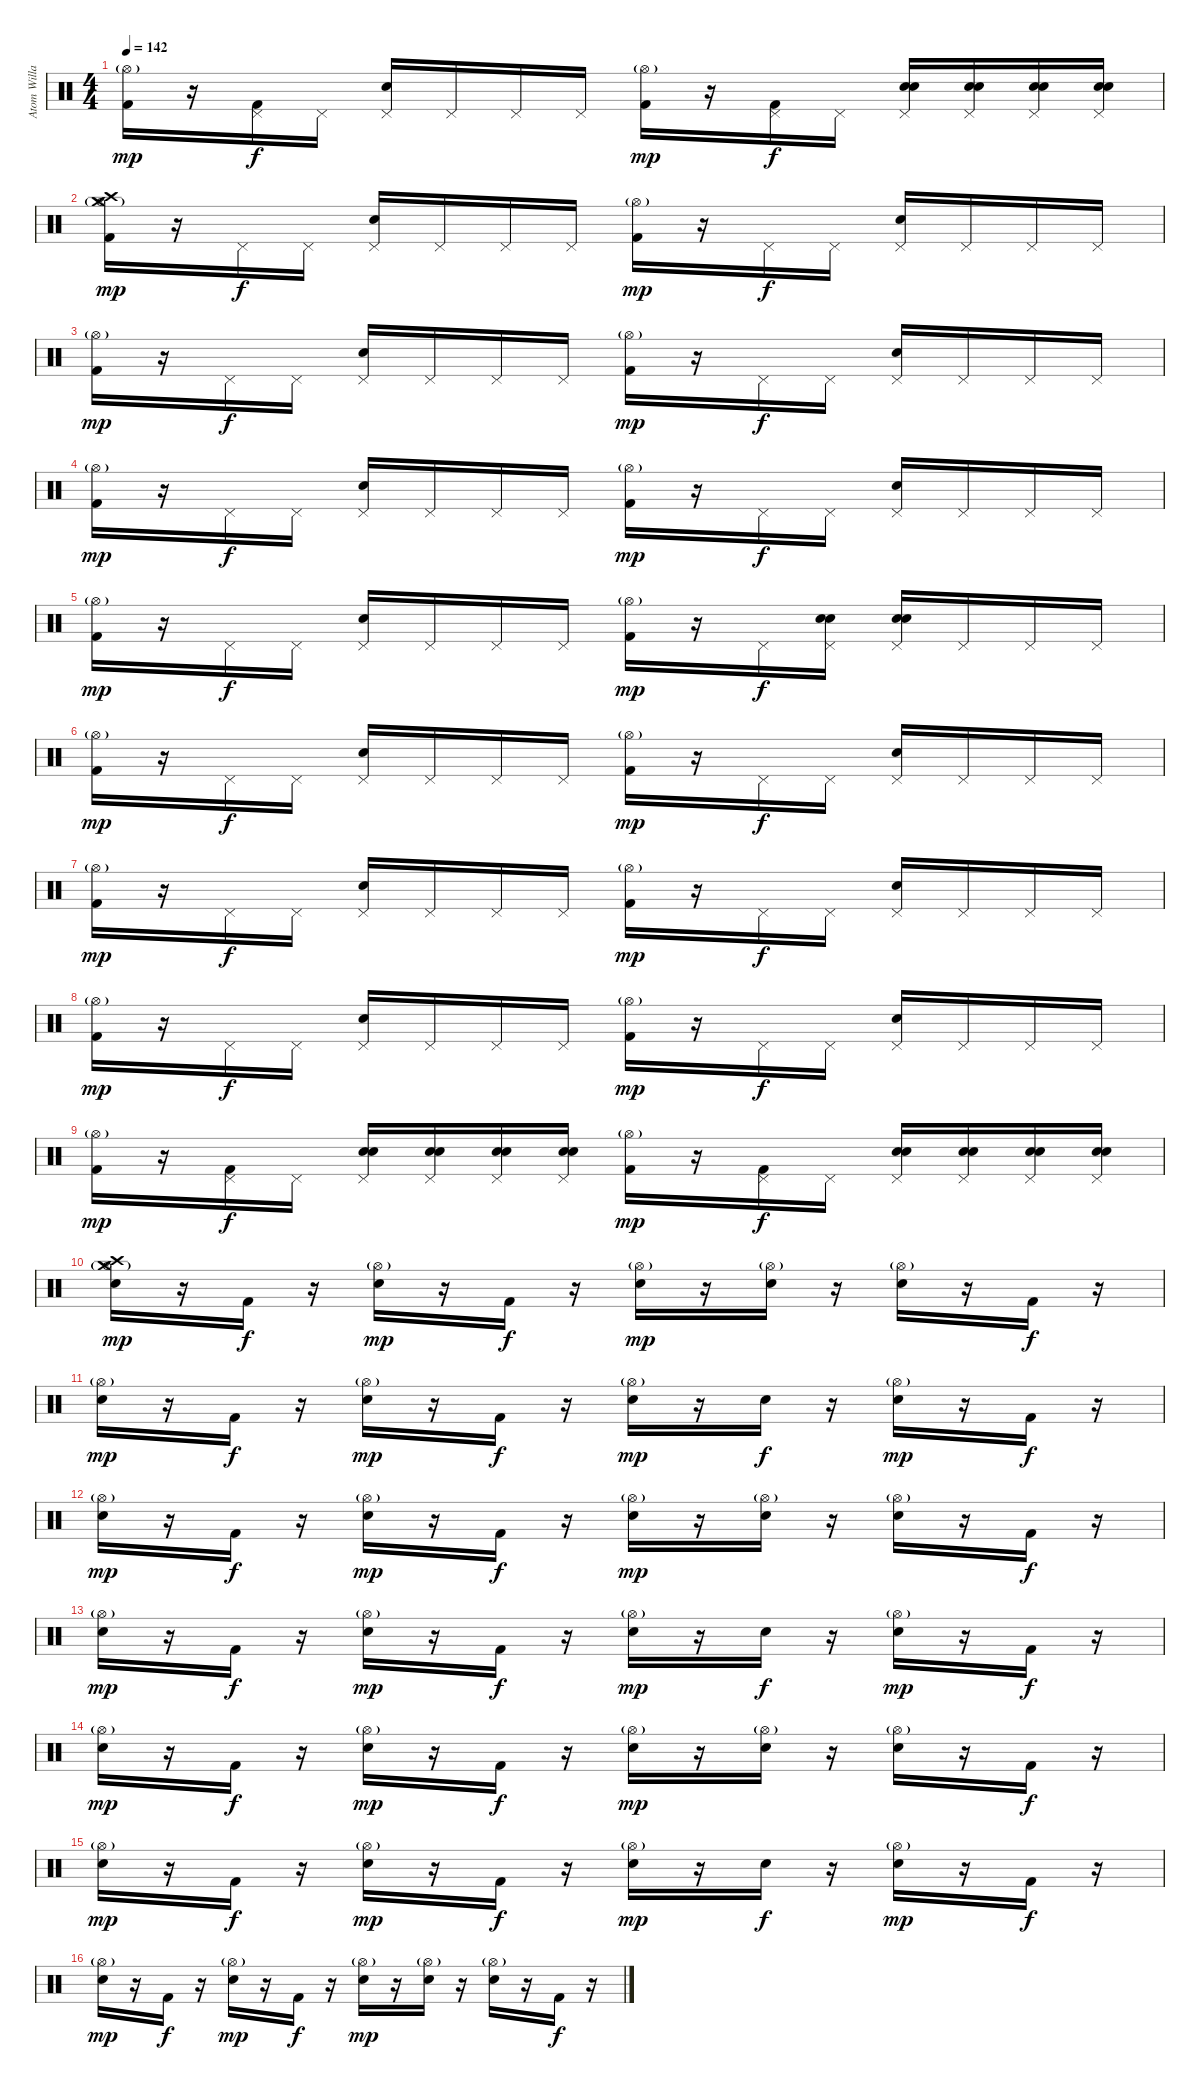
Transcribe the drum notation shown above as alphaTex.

\track ("Atom Willard" "Atom Willa") {instrument percussion}
\staff {score}
\articulation defaults
\ts (4 4)
\tempo 142
\clef neutral
\ks c
("Hi-Hat (open)"{g} "Kick (hit) 2").16{dy mp} r.16 ("Pedal Hi-Hat (hit)" "Kick (hit) 2").16{dy f} "Pedal Hi-Hat (hit)".16 ("Pedal Hi-Hat (hit)" "Electric Snare (hit)").16 "Pedal Hi-Hat (hit)".16 "Pedal Hi-Hat (hit)".16 "Pedal Hi-Hat (hit)".16 ("Hi-Hat (open)"{g} "Kick (hit) 2").16{dy mp} r.16 ("Pedal Hi-Hat (hit)" "Kick (hit) 2").16{dy f} "Pedal Hi-Hat (hit)".16 ("Pedal Hi-Hat (hit)" "Snare (hit) 2" "Electric Snare (hit)").16 ("Pedal Hi-Hat (hit)" "Snare (hit) 2" "Electric Snare (hit)").16 ("Pedal Hi-Hat (hit)" "Snare (hit) 2" "Electric Snare (hit)").16 ("Pedal Hi-Hat (hit)" "Snare (hit) 2" "Electric Snare (hit)").16 |
("Crash high (hit)" "Crash medium (hit)" "Hi-Hat (open)"{g} "Kick (hit) 2").16{dy mp} r.16 "Pedal Hi-Hat (hit)".16{dy f} "Pedal Hi-Hat (hit)".16 ("Pedal Hi-Hat (hit)" "Electric Snare (hit)").16 "Pedal Hi-Hat (hit)".16 "Pedal Hi-Hat (hit)".16 "Pedal Hi-Hat (hit)".16 ("Hi-Hat (open)"{g} "Kick (hit) 2").16{dy mp} r.16 "Pedal Hi-Hat (hit)".16{dy f} "Pedal Hi-Hat (hit)".16 ("Pedal Hi-Hat (hit)" "Electric Snare (hit)").16 "Pedal Hi-Hat (hit)".16 "Pedal Hi-Hat (hit)".16 "Pedal Hi-Hat (hit)".16 |
("Hi-Hat (open)"{g} "Kick (hit) 2").16{dy mp} r.16 "Pedal Hi-Hat (hit)".16{dy f} "Pedal Hi-Hat (hit)".16 ("Pedal Hi-Hat (hit)" "Electric Snare (hit)").16 "Pedal Hi-Hat (hit)".16 "Pedal Hi-Hat (hit)".16 "Pedal Hi-Hat (hit)".16 ("Hi-Hat (open)"{g} "Kick (hit) 2").16{dy mp} r.16 "Pedal Hi-Hat (hit)".16{dy f} "Pedal Hi-Hat (hit)".16 ("Pedal Hi-Hat (hit)" "Electric Snare (hit)").16 "Pedal Hi-Hat (hit)".16 "Pedal Hi-Hat (hit)".16 "Pedal Hi-Hat (hit)".16 |
("Hi-Hat (open)"{g} "Kick (hit) 2").16{dy mp} r.16 "Pedal Hi-Hat (hit)".16{dy f} "Pedal Hi-Hat (hit)".16 ("Pedal Hi-Hat (hit)" "Electric Snare (hit)").16 "Pedal Hi-Hat (hit)".16 "Pedal Hi-Hat (hit)".16 "Pedal Hi-Hat (hit)".16 ("Hi-Hat (open)"{g} "Kick (hit) 2").16{dy mp} r.16 "Pedal Hi-Hat (hit)".16{dy f} "Pedal Hi-Hat (hit)".16 ("Pedal Hi-Hat (hit)" "Electric Snare (hit)").16 "Pedal Hi-Hat (hit)".16 "Pedal Hi-Hat (hit)".16 "Pedal Hi-Hat (hit)".16 |
("Hi-Hat (open)"{g} "Kick (hit) 2").16{dy mp} r.16 "Pedal Hi-Hat (hit)".16{dy f} "Pedal Hi-Hat (hit)".16 ("Pedal Hi-Hat (hit)" "Electric Snare (hit)").16 "Pedal Hi-Hat (hit)".16 "Pedal Hi-Hat (hit)".16 "Pedal Hi-Hat (hit)".16 ("Hi-Hat (open)"{g} "Kick (hit) 2").16{dy mp} r.16 "Pedal Hi-Hat (hit)".16{dy f} ("Pedal Hi-Hat (hit)" "Snare (hit) 2" "Electric Snare (hit)").16 ("Pedal Hi-Hat (hit)" "Snare (hit) 2" "Electric Snare (hit)").16 "Pedal Hi-Hat (hit)".16 "Pedal Hi-Hat (hit)".16 "Pedal Hi-Hat (hit)".16 |
("Hi-Hat (open)"{g} "Kick (hit) 2").16{dy mp} r.16 "Pedal Hi-Hat (hit)".16{dy f} "Pedal Hi-Hat (hit)".16 ("Pedal Hi-Hat (hit)" "Electric Snare (hit)").16 "Pedal Hi-Hat (hit)".16 "Pedal Hi-Hat (hit)".16 "Pedal Hi-Hat (hit)".16 ("Hi-Hat (open)"{g} "Kick (hit) 2").16{dy mp} r.16 "Pedal Hi-Hat (hit)".16{dy f} "Pedal Hi-Hat (hit)".16 ("Pedal Hi-Hat (hit)" "Electric Snare (hit)").16 "Pedal Hi-Hat (hit)".16 "Pedal Hi-Hat (hit)".16 "Pedal Hi-Hat (hit)".16 |
("Hi-Hat (open)"{g} "Kick (hit) 2").16{dy mp} r.16 "Pedal Hi-Hat (hit)".16{dy f} "Pedal Hi-Hat (hit)".16 ("Pedal Hi-Hat (hit)" "Electric Snare (hit)").16 "Pedal Hi-Hat (hit)".16 "Pedal Hi-Hat (hit)".16 "Pedal Hi-Hat (hit)".16 ("Hi-Hat (open)"{g} "Kick (hit) 2").16{dy mp} r.16 "Pedal Hi-Hat (hit)".16{dy f} "Pedal Hi-Hat (hit)".16 ("Pedal Hi-Hat (hit)" "Electric Snare (hit)").16 "Pedal Hi-Hat (hit)".16 "Pedal Hi-Hat (hit)".16 "Pedal Hi-Hat (hit)".16 |
("Hi-Hat (open)"{g} "Kick (hit) 2").16{dy mp} r.16 "Pedal Hi-Hat (hit)".16{dy f} "Pedal Hi-Hat (hit)".16 ("Pedal Hi-Hat (hit)" "Electric Snare (hit)").16 "Pedal Hi-Hat (hit)".16 "Pedal Hi-Hat (hit)".16 "Pedal Hi-Hat (hit)".16 ("Hi-Hat (open)"{g} "Kick (hit) 2").16{dy mp} r.16 "Pedal Hi-Hat (hit)".16{dy f} "Pedal Hi-Hat (hit)".16 ("Pedal Hi-Hat (hit)" "Electric Snare (hit)").16 "Pedal Hi-Hat (hit)".16 "Pedal Hi-Hat (hit)".16 "Pedal Hi-Hat (hit)".16 |
("Hi-Hat (open)"{g} "Kick (hit) 2").16{dy mp} r.16 ("Pedal Hi-Hat (hit)" "Kick (hit) 2").16{dy f} "Pedal Hi-Hat (hit)".16 ("Pedal Hi-Hat (hit)" "Snare (hit) 2" "Electric Snare (hit)").16 ("Pedal Hi-Hat (hit)" "Snare (hit) 2" "Electric Snare (hit)").16 ("Pedal Hi-Hat (hit)" "Snare (hit) 2" "Electric Snare (hit)").16 ("Pedal Hi-Hat (hit)" "Snare (hit) 2" "Electric Snare (hit)").16 ("Hi-Hat (open)"{g} "Kick (hit) 2").16{dy mp} r.16 ("Pedal Hi-Hat (hit)" "Kick (hit) 2").16{dy f} "Pedal Hi-Hat (hit)".16 ("Pedal Hi-Hat (hit)" "Snare (hit) 2" "Electric Snare (hit)").16 ("Pedal Hi-Hat (hit)" "Snare (hit) 2" "Electric Snare (hit)").16 ("Pedal Hi-Hat (hit)" "Snare (hit) 2" "Electric Snare (hit)").16 ("Pedal Hi-Hat (hit)" "Snare (hit) 2" "Electric Snare (hit)").16 |
("Crash high (hit)" "Crash medium (hit)" "Hi-Hat (open)"{g} "Electric Snare (hit)").16{dy mp} r.16 "Kick (hit) 2".16{dy f} r.16 ("Hi-Hat (open)"{g} "Electric Snare (hit)").16{dy mp} r.16 "Kick (hit) 2".16{dy f} r.16 ("Hi-Hat (open)"{g} "Electric Snare (hit)").16{dy mp} r.16 ("Hi-Hat (open)"{g} "Electric Snare (hit)").16 r.16 ("Hi-Hat (open)"{g} "Electric Snare (hit)").16 r.16 "Kick (hit) 2".16{dy f} r.16 |
("Hi-Hat (open)"{g} "Electric Snare (hit)").16{dy mp} r.16 "Kick (hit) 2".16{dy f} r.16 ("Hi-Hat (open)"{g} "Electric Snare (hit)").16{dy mp} r.16 "Kick (hit) 2".16{dy f} r.16 ("Hi-Hat (open)"{g} "Electric Snare (hit)").16{dy mp} r.16 "Electric Snare (hit)".16{dy f} r.16 ("Hi-Hat (open)"{g} "Electric Snare (hit)").16{dy mp} r.16 "Kick (hit) 2".16{dy f} r.16 |
("Hi-Hat (open)"{g} "Electric Snare (hit)").16{dy mp} r.16 "Kick (hit) 2".16{dy f} r.16 ("Hi-Hat (open)"{g} "Electric Snare (hit)").16{dy mp} r.16 "Kick (hit) 2".16{dy f} r.16 ("Hi-Hat (open)"{g} "Electric Snare (hit)").16{dy mp} r.16 ("Hi-Hat (open)"{g} "Electric Snare (hit)").16 r.16 ("Hi-Hat (open)"{g} "Electric Snare (hit)").16 r.16 "Kick (hit) 2".16{dy f} r.16 |
("Hi-Hat (open)"{g} "Electric Snare (hit)").16{dy mp} r.16 "Kick (hit) 2".16{dy f} r.16 ("Hi-Hat (open)"{g} "Electric Snare (hit)").16{dy mp} r.16 "Kick (hit) 2".16{dy f} r.16 ("Hi-Hat (open)"{g} "Electric Snare (hit)").16{dy mp} r.16 "Electric Snare (hit)".16{dy f} r.16 ("Hi-Hat (open)"{g} "Electric Snare (hit)").16{dy mp} r.16 "Kick (hit) 2".16{dy f} r.16 |
("Hi-Hat (open)"{g} "Electric Snare (hit)").16{dy mp} r.16 "Kick (hit) 2".16{dy f} r.16 ("Hi-Hat (open)"{g} "Electric Snare (hit)").16{dy mp} r.16 "Kick (hit) 2".16{dy f} r.16 ("Hi-Hat (open)"{g} "Electric Snare (hit)").16{dy mp} r.16 ("Hi-Hat (open)"{g} "Electric Snare (hit)").16 r.16 ("Hi-Hat (open)"{g} "Electric Snare (hit)").16 r.16 "Kick (hit) 2".16{dy f} r.16 |
("Hi-Hat (open)"{g} "Electric Snare (hit)").16{dy mp} r.16 "Kick (hit) 2".16{dy f} r.16 ("Hi-Hat (open)"{g} "Electric Snare (hit)").16{dy mp} r.16 "Kick (hit) 2".16{dy f} r.16 ("Hi-Hat (open)"{g} "Electric Snare (hit)").16{dy mp} r.16 "Electric Snare (hit)".16{dy f} r.16 ("Hi-Hat (open)"{g} "Electric Snare (hit)").16{dy mp} r.16 "Kick (hit) 2".16{dy f} r.16 |
("Hi-Hat (open)"{g} "Electric Snare (hit)").16{dy mp} r.16 "Kick (hit) 2".16{dy f} r.16 ("Hi-Hat (open)"{g} "Electric Snare (hit)").16{dy mp} r.16 "Kick (hit) 2".16{dy f} r.16 ("Hi-Hat (open)"{g} "Electric Snare (hit)").16{dy mp} r.16 ("Hi-Hat (open)"{g} "Electric Snare (hit)").16 r.16 ("Hi-Hat (open)"{g} "Electric Snare (hit)").16 r.16 "Kick (hit) 2".16{dy f} r.16
